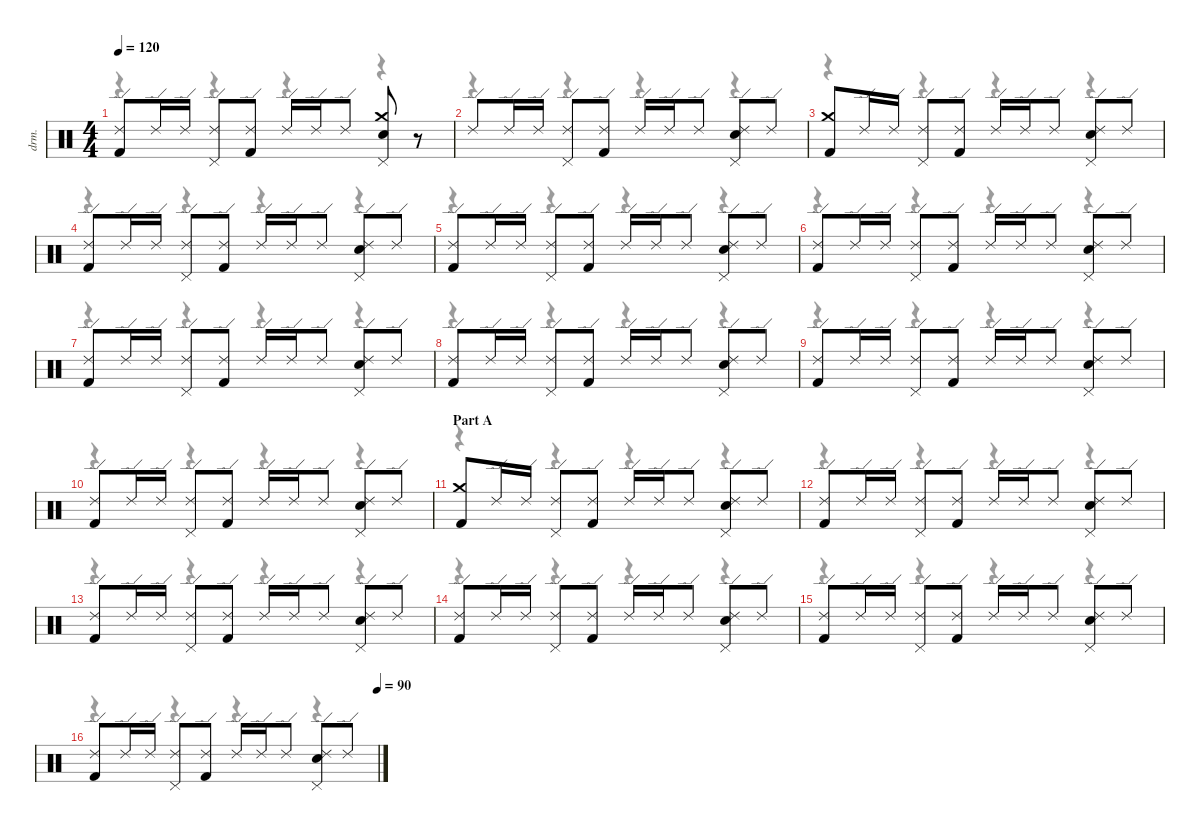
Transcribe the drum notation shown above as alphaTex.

\defaultSystemsLayout 4
\hideDynamics
\bracketExtendMode nobrackets
\otherSystemsTrackNameOrientation horizontal
\track ("Percussion" "drm.") {instrument percussion}
\staff {score}
\articulation defaults
\voice
\ts (4 4)
\tempo 120
\clef neutral
\ks c
("Ride (edge) 2" "Kick (hit) 2").8{dy f} "Ride (edge) 2".16 "Ride (edge) 2".16 ("Ride (edge) 2" "Pedal Hi-Hat (hit)").8 ("Ride (edge) 2" "Kick (hit) 2").8 "Ride (edge) 2".16 "Ride (edge) 2".16 "Ride (edge) 2".8 ("Crash medium (hit)" "Pedal Hi-Hat (hit)" "Snare (hit) 2").8 r.8 |
"Ride (edge) 2".8 "Ride (edge) 2".16 "Ride (edge) 2".16 ("Ride (edge) 2" "Pedal Hi-Hat (hit)").8 ("Ride (edge) 2" "Kick (hit) 2").8 "Ride (edge) 2".16 "Ride (edge) 2".16 "Ride (edge) 2".8 ("Ride (edge) 2" "Pedal Hi-Hat (hit)" "Snare (hit) 2").8 "Ride (edge) 2".8 |
("Crash medium (hit)" "Kick (hit) 2").8 "Ride (edge) 2".16 "Ride (edge) 2".16 ("Ride (edge) 2" "Pedal Hi-Hat (hit)").8 ("Ride (edge) 2" "Kick (hit) 2").8 "Ride (edge) 2".16 "Ride (edge) 2".16 "Ride (edge) 2".8 ("Ride (edge) 2" "Pedal Hi-Hat (hit)" "Snare (hit) 2").8 "Ride (edge) 2".8 |
("Ride (edge) 2" "Kick (hit) 2").8 "Ride (edge) 2".16 "Ride (edge) 2".16 ("Ride (edge) 2" "Pedal Hi-Hat (hit)").8 ("Ride (edge) 2" "Kick (hit) 2").8 "Ride (edge) 2".16 "Ride (edge) 2".16 "Ride (edge) 2".8 ("Ride (edge) 2" "Pedal Hi-Hat (hit)" "Snare (hit) 2").8 "Ride (edge) 2".8 |
("Ride (edge) 2" "Kick (hit) 2").8 "Ride (edge) 2".16 "Ride (edge) 2".16 ("Ride (edge) 2" "Pedal Hi-Hat (hit)").8 ("Ride (edge) 2" "Kick (hit) 2").8 "Ride (edge) 2".16 "Ride (edge) 2".16 "Ride (edge) 2".8 ("Ride (edge) 2" "Pedal Hi-Hat (hit)" "Snare (hit) 2").8 "Ride (edge) 2".8 |
("Ride (edge) 2" "Kick (hit) 2").8 "Ride (edge) 2".16 "Ride (edge) 2".16 ("Ride (edge) 2" "Pedal Hi-Hat (hit)").8 ("Ride (edge) 2" "Kick (hit) 2").8 "Ride (edge) 2".16 "Ride (edge) 2".16 "Ride (edge) 2".8 ("Ride (edge) 2" "Pedal Hi-Hat (hit)" "Snare (hit) 2").8 "Ride (edge) 2".8 |
("Ride (edge) 2" "Kick (hit) 2").8 "Ride (edge) 2".16 "Ride (edge) 2".16 ("Ride (edge) 2" "Pedal Hi-Hat (hit)").8 ("Ride (edge) 2" "Kick (hit) 2").8 "Ride (edge) 2".16 "Ride (edge) 2".16 "Ride (edge) 2".8 ("Ride (edge) 2" "Pedal Hi-Hat (hit)" "Snare (hit) 2").8 "Ride (edge) 2".8 |
("Ride (edge) 2" "Kick (hit) 2").8 "Ride (edge) 2".16 "Ride (edge) 2".16 ("Ride (edge) 2" "Pedal Hi-Hat (hit)").8 ("Ride (edge) 2" "Kick (hit) 2").8 "Ride (edge) 2".16 "Ride (edge) 2".16 "Ride (edge) 2".8 ("Ride (edge) 2" "Pedal Hi-Hat (hit)" "Snare (hit) 2").8 "Ride (edge) 2".8 |
("Ride (edge) 2" "Kick (hit) 2").8 "Ride (edge) 2".16 "Ride (edge) 2".16 ("Ride (edge) 2" "Pedal Hi-Hat (hit)").8 ("Ride (edge) 2" "Kick (hit) 2").8 "Ride (edge) 2".16 "Ride (edge) 2".16 "Ride (edge) 2".8 ("Ride (edge) 2" "Pedal Hi-Hat (hit)" "Snare (hit) 2").8 "Ride (edge) 2".8 |
("Ride (edge) 2" "Kick (hit) 2").8 "Ride (edge) 2".16 "Ride (edge) 2".16 ("Ride (edge) 2" "Pedal Hi-Hat (hit)").8 ("Ride (edge) 2" "Kick (hit) 2").8 "Ride (edge) 2".16 "Ride (edge) 2".16 "Ride (edge) 2".8 ("Ride (edge) 2" "Pedal Hi-Hat (hit)" "Snare (hit) 2").8 "Ride (edge) 2".8 |
\section ("" "Part A")
("Crash medium (hit)" "Kick (hit) 2").8 "Ride (edge) 2".16 "Ride (edge) 2".16 ("Ride (edge) 2" "Pedal Hi-Hat (hit)").8 ("Ride (edge) 2" "Kick (hit) 2").8 "Ride (edge) 2".16 "Ride (edge) 2".16 "Ride (edge) 2".8 ("Ride (edge) 2" "Pedal Hi-Hat (hit)" "Snare (hit) 2").8 "Ride (edge) 2".8 |
("Ride (edge) 2" "Kick (hit) 2").8 "Ride (edge) 2".16 "Ride (edge) 2".16 ("Ride (edge) 2" "Pedal Hi-Hat (hit)").8 ("Ride (edge) 2" "Kick (hit) 2").8 "Ride (edge) 2".16 "Ride (edge) 2".16 "Ride (edge) 2".8 ("Ride (edge) 2" "Pedal Hi-Hat (hit)" "Snare (hit) 2").8 "Ride (edge) 2".8 |
("Ride (edge) 2" "Kick (hit) 2").8 "Ride (edge) 2".16 "Ride (edge) 2".16 ("Ride (edge) 2" "Pedal Hi-Hat (hit)").8 ("Ride (edge) 2" "Kick (hit) 2").8 "Ride (edge) 2".16 "Ride (edge) 2".16 "Ride (edge) 2".8 ("Ride (edge) 2" "Pedal Hi-Hat (hit)" "Snare (hit) 2").8 "Ride (edge) 2".8 |
("Ride (edge) 2" "Kick (hit) 2").8 "Ride (edge) 2".16 "Ride (edge) 2".16 ("Ride (edge) 2" "Pedal Hi-Hat (hit)").8 ("Ride (edge) 2" "Kick (hit) 2").8 "Ride (edge) 2".16 "Ride (edge) 2".16 "Ride (edge) 2".8 ("Ride (edge) 2" "Pedal Hi-Hat (hit)" "Snare (hit) 2").8 "Ride (edge) 2".8 |
("Ride (edge) 2" "Kick (hit) 2").8 "Ride (edge) 2".16 "Ride (edge) 2".16 ("Ride (edge) 2" "Pedal Hi-Hat (hit)").8 ("Ride (edge) 2" "Kick (hit) 2").8 "Ride (edge) 2".16 "Ride (edge) 2".16 "Ride (edge) 2".8 ("Ride (edge) 2" "Pedal Hi-Hat (hit)" "Snare (hit) 2").8 "Ride (edge) 2".8 |
\tempo (90 1)
("Ride (edge) 2" "Kick (hit) 2").8 "Ride (edge) 2".16 "Ride (edge) 2".16 ("Ride (edge) 2" "Pedal Hi-Hat (hit)").8 ("Ride (edge) 2" "Kick (hit) 2").8 "Ride (edge) 2".16 "Ride (edge) 2".16 "Ride (edge) 2".8 ("Ride (edge) 2" "Pedal Hi-Hat (hit)" "Snare (hit) 2").8 "Ride (edge) 2".8
\voice
\clef neutral
\ottava regular
\simile none
\ks c
r.4{dy mf} r.4 r.4 r.4 |
r.4 r.4 r.4 r.4 |
r.4 r.4 r.4 r.4 |
r.4 r.4 r.4 r.4 |
r.4 r.4 r.4 r.4 |
r.4 r.4 r.4 r.4 |
r.4 r.4 r.4 r.4 |
r.4 r.4 r.4 r.4 |
r.4 r.4 r.4 r.4 |
r.4 r.4 r.4 r.4 |
r.4 r.4 r.4 r.4 |
r.4 r.4 r.4 r.4 |
r.4 r.4 r.4 r.4 |
r.4 r.4 r.4 r.4 |
r.4 r.4 r.4 r.4 |
r.4 r.4 r.4 r.4
